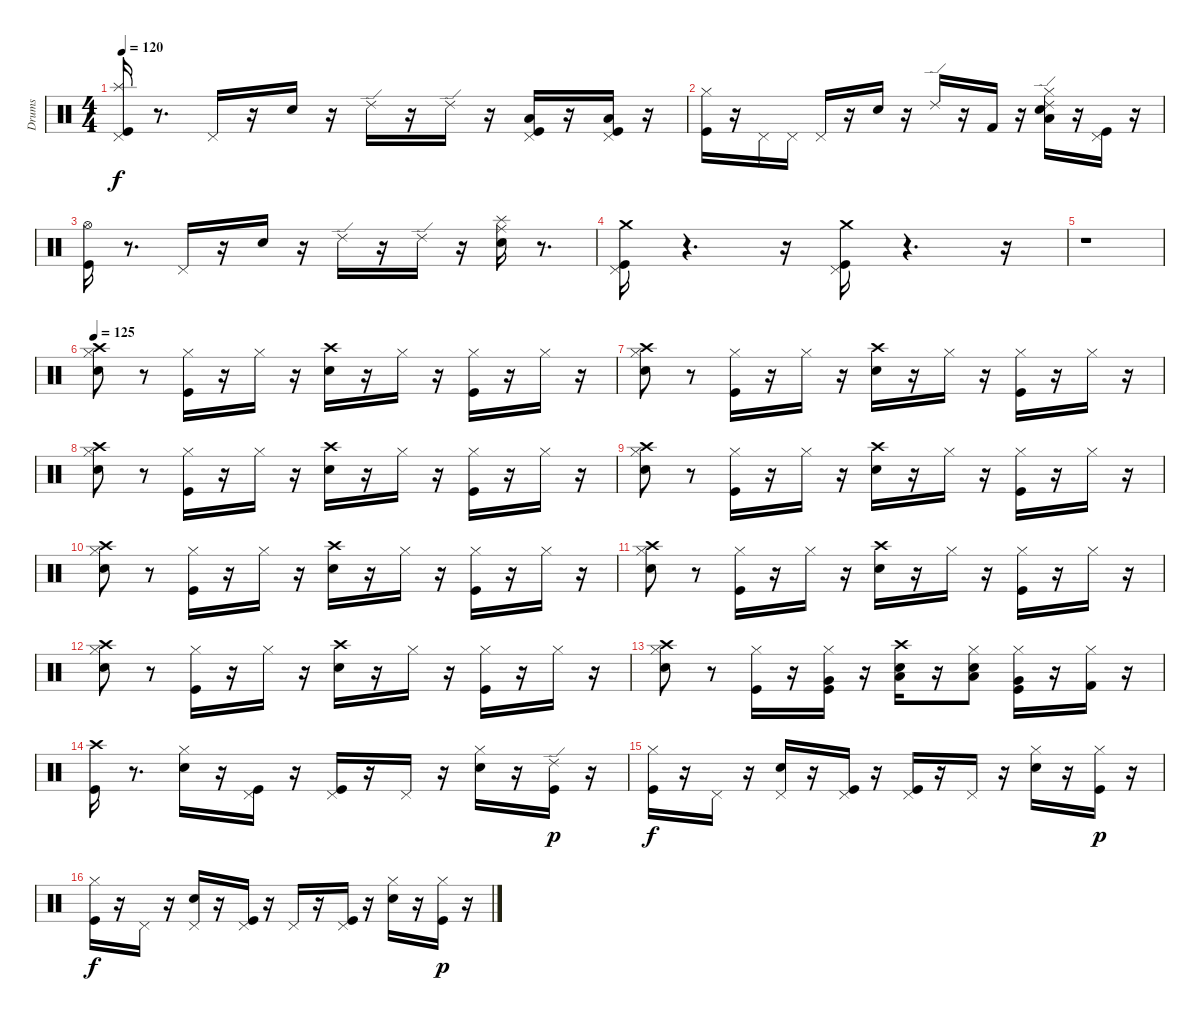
\track ("Drums" "Drums") {instrument percussion}
\staff {score}
\articulation defaults
\ts (4 4)
\tempo 120
\clef neutral
\ks c
("Pedal Hi-Hat (hit)" "Splash (hit)" "Kick (hit)").16{dy f} r.8{d} "Pedal Hi-Hat (hit)".16 r.16 "Electric Snare (hit)".16 r.16 "Ride (edge) 2".16 r.16 "Ride (edge) 2".16 r.16 ("Kick (hit)" "Pedal Hi-Hat (hit)" "Low Tom (hit)").16 r.16 ("Kick (hit)" "Pedal Hi-Hat (hit)" "Low Tom (hit)").16 r.16 |
("Hi-Hat (closed)" "Kick (hit)").16 r.16 "Pedal Hi-Hat (hit)".16 "Pedal Hi-Hat (hit)".16 "Pedal Hi-Hat (hit)".16 r.16 "Electric Snare (hit)".16 r.16 "Ride (edge) 2".16 r.16 "Kick (hit) 2".16 r.16 ("Ride (edge) 2" "Hi-Hat (closed)" "Low Tom (hit)" "Electric Snare (hit)").16 r.16 ("Pedal Hi-Hat (hit)" "Kick (hit)").16 r.16 |
("Hi-Hat (open)" "Kick (hit)").16 r.8{d} "Pedal Hi-Hat (hit)".16 r.16 "Electric Snare (hit)".16 r.16 "Ride (edge) 2".16 r.16 "Ride (edge) 2".16 r.16 ("Splash (hit)" "Ride (middle)" "Electric Snare (hit)").16 r.8{d} |
("Pedal Hi-Hat (hit)" "Crash medium (hit)" "Kick (hit)").16 r.4{d} r.16 ("Pedal Hi-Hat (hit)" "Kick (hit)" "Crash medium (hit)").16 r.4{d} r.16 |
r.1 |
\tempo 125
("Hi-Hat (closed)" "Crash high (hit)" "Electric Snare (hit)").8 r.8 ("Hi-Hat (closed)" "Kick (hit)").16 r.16 "Hi-Hat (closed)".16 r.16 ("Crash high (hit)" "Electric Snare (hit)").16 r.16 "Hi-Hat (closed)".16 r.16 ("Hi-Hat (closed)" "Kick (hit)").16 r.16 "Hi-Hat (closed)".16 r.16 |
("Hi-Hat (closed)" "Crash high (hit)" "Electric Snare (hit)").8 r.8 ("Hi-Hat (closed)" "Kick (hit)").16 r.16 "Hi-Hat (closed)".16 r.16 ("Crash high (hit)" "Electric Snare (hit)").16 r.16 "Hi-Hat (closed)".16 r.16 ("Hi-Hat (closed)" "Kick (hit)").16 r.16 "Hi-Hat (closed)".16 r.16 |
("Hi-Hat (closed)" "Crash high (hit)" "Electric Snare (hit)").8 r.8 ("Hi-Hat (closed)" "Kick (hit)").16 r.16 "Hi-Hat (closed)".16 r.16 ("Crash high (hit)" "Electric Snare (hit)").16 r.16 "Hi-Hat (closed)".16 r.16 ("Hi-Hat (closed)" "Kick (hit)").16 r.16 "Hi-Hat (closed)".16 r.16 |
("Hi-Hat (closed)" "Crash high (hit)" "Electric Snare (hit)").8 r.8 ("Hi-Hat (closed)" "Kick (hit)").16 r.16 "Hi-Hat (closed)".16 r.16 ("Crash high (hit)" "Electric Snare (hit)").16 r.16 "Hi-Hat (closed)".16 r.16 ("Hi-Hat (closed)" "Kick (hit)").16 r.16 "Hi-Hat (closed)".16 r.16 |
("Hi-Hat (closed)" "Crash high (hit)" "Electric Snare (hit)").8 r.8 ("Hi-Hat (closed)" "Kick (hit)").16 r.16 "Hi-Hat (closed)".16 r.16 ("Crash high (hit)" "Electric Snare (hit)").16 r.16 "Hi-Hat (closed)".16 r.16 ("Hi-Hat (closed)" "Kick (hit)").16 r.16 "Hi-Hat (closed)".16 r.16 |
("Hi-Hat (closed)" "Crash high (hit)" "Electric Snare (hit)").8 r.8 ("Hi-Hat (closed)" "Kick (hit)").16 r.16 "Hi-Hat (closed)".16 r.16 ("Crash high (hit)" "Electric Snare (hit)").16 r.16 "Hi-Hat (closed)".16 r.16 ("Hi-Hat (closed)" "Kick (hit)").16 r.16 "Hi-Hat (closed)".16 r.16 |
("Hi-Hat (closed)" "Crash high (hit)" "Electric Snare (hit)").8 r.8 ("Hi-Hat (closed)" "Kick (hit)").16 r.16 "Hi-Hat (closed)".16 r.16 ("Crash high (hit)" "Electric Snare (hit)").16 r.16 "Hi-Hat (closed)".16 r.16 ("Hi-Hat (closed)" "Kick (hit)").16 r.16 "Hi-Hat (closed)".16 r.16 |
("Hi-Hat (closed)" "Crash high (hit)" "Electric Snare (hit)").8 r.8 ("Hi-Hat (closed)" "Kick (hit)").16 r.16 ("Very Low Tom (hit)" "Kick (hit)" "Hi-Hat (closed)").16 r.16 ("Low Tom (hit)" "Electric Snare (hit)" "Crash high (hit)").16 r.16 ("Low Tom (hit)" "Snare (hit) 2" "Hi-Hat (closed)").8 ("Very Low Tom (hit)" "Kick (hit)" "Hi-Hat (closed)").16 r.16 ("Kick (hit) 2" "Hi-Hat (closed)").16 r.16 |
("Crash high (hit)" "Kick (hit)").16 r.8{d} ("Hi-Hat (closed)" "Electric Snare (hit)").16 r.16 ("Pedal Hi-Hat (hit)" "Kick (hit)").16 r.16 ("Pedal Hi-Hat (hit)" "Kick (hit)").16 r.16 "Pedal Hi-Hat (hit)".16 r.16 ("Hi-Hat (closed)" "Electric Snare (hit)").16 r.16 ("Kick (hit)" "Ride (edge) 2").16{dy p} r.16 |
("Hi-Hat (closed)" "Kick (hit)").16{dy f} r.16 "Pedal Hi-Hat (hit)".16 r.16 ("Pedal Hi-Hat (hit)" "Electric Snare (hit)").16 r.16 ("Kick (hit)" "Pedal Hi-Hat (hit)").16 r.16 ("Pedal Hi-Hat (hit)" "Kick (hit)").16 r.16 "Pedal Hi-Hat (hit)".16 r.16 ("Hi-Hat (closed)" "Electric Snare (hit)").16 r.16 ("Kick (hit)" "Hi-Hat (closed)").16{dy p} r.16 |
("Hi-Hat (closed)" "Kick (hit)").16{dy f} r.16 "Pedal Hi-Hat (hit)".16 r.16 ("Pedal Hi-Hat (hit)" "Electric Snare (hit)").16 r.16 ("Kick (hit)" "Pedal Hi-Hat (hit)").16 r.16 "Pedal Hi-Hat (hit)".16 r.16 ("Kick (hit)" "Pedal Hi-Hat (hit)").16 r.16 ("Hi-Hat (closed)" "Electric Snare (hit)").16 r.16 ("Kick (hit)" "Hi-Hat (closed)").16{dy p} r.16
